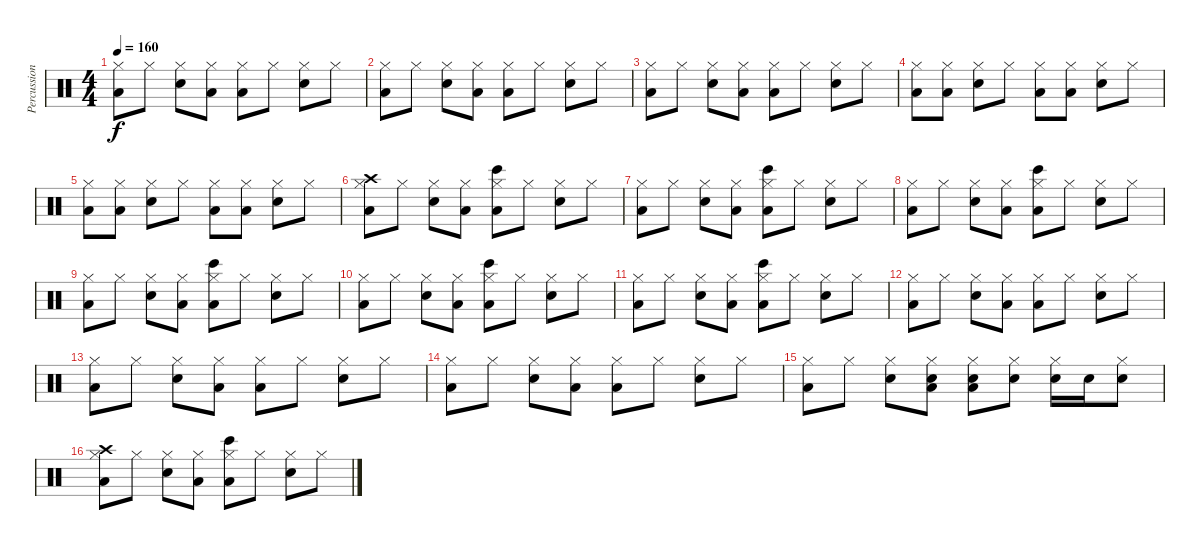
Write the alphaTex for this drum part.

\track ("Percussions" "Percussion") {instrument percussion}
\staff {score}
\articulation defaults
\ts (4 4)
\tempo 160
\clef neutral
\ks c
("Low Floor Tom (hit)" "Hi-Hat (closed)").8{dy f} "Hi-Hat (closed)".8 ("Electric Snare (hit)" "Hi-Hat (closed)").8 ("Low Floor Tom (hit)" "Hi-Hat (closed)").8 ("Low Floor Tom (hit)" "Hi-Hat (closed)").8 "Hi-Hat (closed)".8 ("Electric Snare (hit)" "Hi-Hat (closed)").8 "Hi-Hat (closed)".8 |
("Low Floor Tom (hit)" "Hi-Hat (closed)").8 "Hi-Hat (closed)".8 ("Electric Snare (hit)" "Hi-Hat (closed)").8 ("Low Floor Tom (hit)" "Hi-Hat (closed)").8 ("Low Floor Tom (hit)" "Hi-Hat (closed)").8 "Hi-Hat (closed)".8 ("Electric Snare (hit)" "Hi-Hat (closed)").8 "Hi-Hat (closed)".8 |
("Low Floor Tom (hit)" "Hi-Hat (closed)").8 "Hi-Hat (closed)".8 ("Electric Snare (hit)" "Hi-Hat (closed)").8 ("Low Floor Tom (hit)" "Hi-Hat (closed)").8 ("Low Floor Tom (hit)" "Hi-Hat (closed)").8 "Hi-Hat (closed)".8 ("Electric Snare (hit)" "Hi-Hat (closed)").8 "Hi-Hat (closed)".8 |
("Low Floor Tom (hit)" "Hi-Hat (closed)").8 ("Low Floor Tom (hit)" "Hi-Hat (closed)").8 ("Electric Snare (hit)" "Hi-Hat (closed)").8 "Hi-Hat (closed)".8 ("Low Floor Tom (hit)" "Hi-Hat (closed)").8 ("Low Floor Tom (hit)" "Hi-Hat (closed)").8 ("Electric Snare (hit)" "Hi-Hat (closed)").8 "Hi-Hat (closed)".8 |
("Low Floor Tom (hit)" "Hi-Hat (closed)").8 ("Low Floor Tom (hit)" "Hi-Hat (closed)").8 ("Electric Snare (hit)" "Hi-Hat (closed)").8 "Hi-Hat (closed)".8 ("Low Floor Tom (hit)" "Hi-Hat (closed)").8 ("Low Floor Tom (hit)" "Hi-Hat (closed)").8 ("Electric Snare (hit)" "Hi-Hat (closed)").8 "Hi-Hat (closed)".8 |
("Low Floor Tom (hit)" "Hi-Hat (closed)" "Crash high (hit)").8 "Hi-Hat (closed)".8 ("Electric Snare (hit)" "Hi-Hat (closed)").8 ("Low Floor Tom (hit)" "Hi-Hat (closed)").8 ("Low Floor Tom (hit)" "Bongo High (hit)" "Hi-Hat (closed)").8 "Hi-Hat (closed)".8 ("Electric Snare (hit)" "Hi-Hat (closed)").8 "Hi-Hat (closed)".8 |
("Low Floor Tom (hit)" "Hi-Hat (closed)").8 "Hi-Hat (closed)".8 ("Electric Snare (hit)" "Hi-Hat (closed)").8 ("Low Floor Tom (hit)" "Hi-Hat (closed)").8 ("Low Floor Tom (hit)" "Bongo High (hit)" "Hi-Hat (closed)").8 "Hi-Hat (closed)".8 ("Electric Snare (hit)" "Hi-Hat (closed)").8 "Hi-Hat (closed)".8 |
("Low Floor Tom (hit)" "Hi-Hat (closed)").8 "Hi-Hat (closed)".8 ("Electric Snare (hit)" "Hi-Hat (closed)").8 ("Low Floor Tom (hit)" "Hi-Hat (closed)").8 ("Low Floor Tom (hit)" "Bongo High (hit)" "Hi-Hat (closed)").8 "Hi-Hat (closed)".8 ("Electric Snare (hit)" "Hi-Hat (closed)").8 "Hi-Hat (closed)".8 |
("Low Floor Tom (hit)" "Hi-Hat (closed)").8 "Hi-Hat (closed)".8 ("Electric Snare (hit)" "Hi-Hat (closed)").8 ("Low Floor Tom (hit)" "Hi-Hat (closed)").8 ("Low Floor Tom (hit)" "Bongo High (hit)" "Hi-Hat (closed)").8 "Hi-Hat (closed)".8 ("Electric Snare (hit)" "Hi-Hat (closed)").8 "Hi-Hat (closed)".8 |
("Low Floor Tom (hit)" "Hi-Hat (closed)").8 "Hi-Hat (closed)".8 ("Electric Snare (hit)" "Hi-Hat (closed)").8 ("Low Floor Tom (hit)" "Hi-Hat (closed)").8 ("Low Floor Tom (hit)" "Bongo High (hit)" "Hi-Hat (closed)").8 "Hi-Hat (closed)".8 ("Electric Snare (hit)" "Hi-Hat (closed)").8 "Hi-Hat (closed)".8 |
("Low Floor Tom (hit)" "Hi-Hat (closed)").8 "Hi-Hat (closed)".8 ("Electric Snare (hit)" "Hi-Hat (closed)").8 ("Low Floor Tom (hit)" "Hi-Hat (closed)").8 ("Low Floor Tom (hit)" "Bongo High (hit)" "Hi-Hat (closed)").8 "Hi-Hat (closed)".8 ("Electric Snare (hit)" "Hi-Hat (closed)").8 "Hi-Hat (closed)".8 |
("Low Floor Tom (hit)" "Hi-Hat (closed)").8 "Hi-Hat (closed)".8 ("Electric Snare (hit)" "Hi-Hat (closed)").8 ("Low Floor Tom (hit)" "Hi-Hat (closed)").8 ("Low Floor Tom (hit)" "Hi-Hat (closed)").8 "Hi-Hat (closed)".8 ("Electric Snare (hit)" "Hi-Hat (closed)").8 "Hi-Hat (closed)".8 |
("Low Floor Tom (hit)" "Hi-Hat (closed)").8 "Hi-Hat (closed)".8 ("Electric Snare (hit)" "Hi-Hat (closed)").8 ("Low Floor Tom (hit)" "Hi-Hat (closed)").8 ("Low Floor Tom (hit)" "Hi-Hat (closed)").8 "Hi-Hat (closed)".8 ("Electric Snare (hit)" "Hi-Hat (closed)").8 "Hi-Hat (closed)".8 |
("Low Floor Tom (hit)" "Hi-Hat (closed)").8 "Hi-Hat (closed)".8 ("Electric Snare (hit)" "Hi-Hat (closed)").8 ("Low Floor Tom (hit)" "Hi-Hat (closed)").8 ("Low Floor Tom (hit)" "Hi-Hat (closed)").8 "Hi-Hat (closed)".8 ("Electric Snare (hit)" "Hi-Hat (closed)").8 "Hi-Hat (closed)".8 |
("Low Floor Tom (hit)" "Hi-Hat (closed)").8 "Hi-Hat (closed)".8 ("Electric Snare (hit)" "Hi-Hat (closed)").8 ("Low Floor Tom (hit)" "Electric Snare (hit)" "Hi-Hat (closed)").8 ("Low Floor Tom (hit)" "Electric Snare (hit)" "Hi-Hat (closed)").8 ("Electric Snare (hit)" "Hi-Hat (closed)").8 ("Electric Snare (hit)" "Hi-Hat (closed)").16 "Electric Snare (hit)".16 ("Electric Snare (hit)" "Hi-Hat (closed)").8 |
("Low Floor Tom (hit)" "Hi-Hat (closed)" "Crash high (hit)").8 "Hi-Hat (closed)".8 ("Electric Snare (hit)" "Hi-Hat (closed)").8 ("Low Floor Tom (hit)" "Hi-Hat (closed)").8 ("Low Floor Tom (hit)" "Bongo High (hit)" "Hi-Hat (closed)").8 "Hi-Hat (closed)".8 ("Electric Snare (hit)" "Hi-Hat (closed)").8 "Hi-Hat (closed)".8
